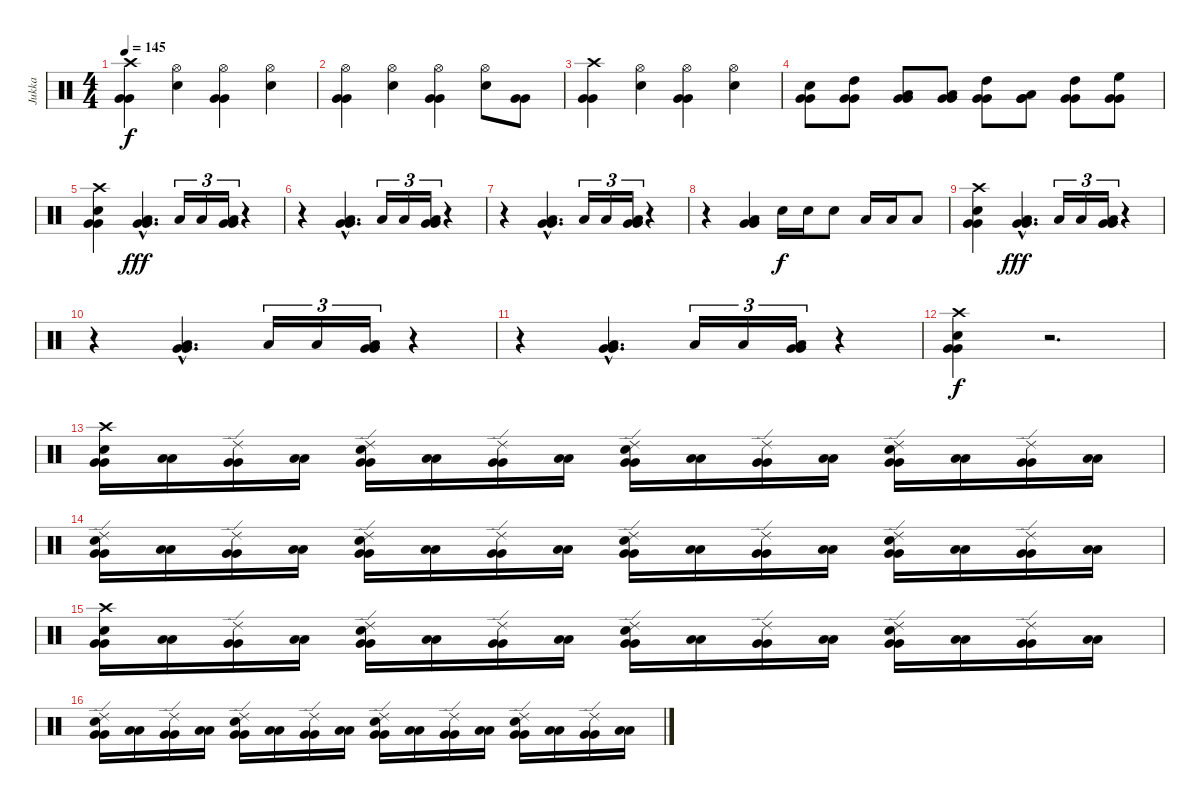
\track ("Jukka" "Jukka") {instrument percussion}
\staff {score}
\articulation defaults
\ts (4 4)
\tempo 145
\clef neutral
\ks c
("Crash high (hit)" "Very Low Tom (hit)" "Very Low Tom (hit)").4{dy f} ("Hi-Hat (open)" "Electric Snare (hit)").4 ("Hi-Hat (open)" "Very Low Tom (hit)" "Very Low Tom (hit)").4 ("Hi-Hat (open)" "Electric Snare (hit)").4 |
("Hi-Hat (open)" "Very Low Tom (hit)" "Very Low Tom (hit)").4 ("Hi-Hat (open)" "Electric Snare (hit)").4 ("Hi-Hat (open)" "Very Low Tom (hit)" "Very Low Tom (hit)").4 ("Hi-Hat (open)" "Electric Snare (hit)").8 ("Very Low Tom (hit)" "Very Low Tom (hit)").8 |
("Crash high (hit)" "Very Low Tom (hit)" "Very Low Tom (hit)").4 ("Hi-Hat (open)" "Electric Snare (hit)").4 ("Hi-Hat (open)" "Very Low Tom (hit)" "Very Low Tom (hit)").4 ("Hi-Hat (open)" "Electric Snare (hit)").4 |
("Electric Snare (hit)" "Very Low Tom (hit)" "Very Low Tom (hit)").8 ("High Tom (hit)" "Very Low Tom (hit)" "Very Low Tom (hit)").8 ("Low Tom (hit)" "Very Low Tom (hit)" "Very Low Tom (hit)").8 ("Low Tom (hit)" "Very Low Tom (hit)" "Very Low Tom (hit)").8 ("High Tom (hit)" "Very Low Tom (hit)" "Very Low Tom (hit)").8 ("Low Tom (hit)" "Very Low Tom (hit)" "Very Low Tom (hit)").8 ("High Tom (hit)" "Very Low Tom (hit)" "Very Low Tom (hit)").8 ("High Floor Tom (hit)" "Very Low Tom (hit)" "Very Low Tom (hit)").8 |
("Crash high (hit)" "Electric Snare (hit)" "Very Low Tom (hit)" "Very Low Tom (hit)").4 ("Low Tom (hit)"{hac} "Very Low Tom (hit)"{hac} "Very Low Tom (hit)"{hac}).4{d dy fff} "Low Tom (hit)".16{tu (3 2)} "Low Tom (hit)".16{tu (3 2)} ("Low Tom (hit)" "Very Low Tom (hit)" "Very Low Tom (hit)").16{tu (3 2)} r.4 |
r.4 ("Low Tom (hit)"{hac} "Very Low Tom (hit)"{hac} "Very Low Tom (hit)"{hac}).4{d} "Low Tom (hit)".16{tu (3 2)} "Low Tom (hit)".16{tu (3 2)} ("Low Tom (hit)" "Very Low Tom (hit)" "Very Low Tom (hit)").16{tu (3 2)} r.4 |
r.4 ("Low Tom (hit)"{hac} "Very Low Tom (hit)"{hac} "Very Low Tom (hit)"{hac}).4{d} "Low Tom (hit)".16{tu (3 2)} "Low Tom (hit)".16{tu (3 2)} ("Low Tom (hit)" "Very Low Tom (hit)" "Very Low Tom (hit)").16{tu (3 2)} r.4 |
r.4 ("Low Tom (hit)" "Very Low Tom (hit)" "Very Low Tom (hit)").4 "Electric Snare (hit)".16{dy f} "Electric Snare (hit)".16 "Electric Snare (hit)".8 "Low Tom (hit)".16 "Low Tom (hit)".16 "Low Tom (hit)".8 |
("Crash high (hit)" "Electric Snare (hit)" "Very Low Tom (hit)" "Very Low Tom (hit)").4 ("Low Tom (hit)"{hac} "Very Low Tom (hit)"{hac} "Very Low Tom (hit)"{hac}).4{d dy fff} "Low Tom (hit)".16{tu (3 2)} "Low Tom (hit)".16{tu (3 2)} ("Low Tom (hit)" "Very Low Tom (hit)" "Very Low Tom (hit)").16{tu (3 2)} r.4 |
r.4 ("Low Tom (hit)"{hac} "Very Low Tom (hit)"{hac} "Very Low Tom (hit)"{hac}).4{d} "Low Tom (hit)".16{tu (3 2)} "Low Tom (hit)".16{tu (3 2)} ("Low Tom (hit)" "Very Low Tom (hit)" "Very Low Tom (hit)").16{tu (3 2)} r.4 |
r.4 ("Low Tom (hit)"{hac} "Very Low Tom (hit)"{hac} "Very Low Tom (hit)"{hac}).4{d} "Low Tom (hit)".16{tu (3 2)} "Low Tom (hit)".16{tu (3 2)} ("Low Tom (hit)" "Very Low Tom (hit)" "Very Low Tom (hit)").16{tu (3 2)} r.4 |
("Crash high (hit)" "Electric Snare (hit)" "Very Low Tom (hit)" "Very Low Tom (hit)").4{dy f} r.2{d} |
("Crash high (hit)" "Electric Snare (hit)" "Very Low Tom (hit)" "Very Low Tom (hit)").16 ("Low Floor Tom (hit)" "Low Floor Tom (hit)").16 ("Ride (edge) 2" "Very Low Tom (hit)" "Very Low Tom (hit)").16 ("Low Floor Tom (hit)" "Low Floor Tom (hit)").16 ("Ride (edge) 2" "Electric Snare (hit)" "Very Low Tom (hit)" "Very Low Tom (hit)").16 ("Low Floor Tom (hit)" "Low Floor Tom (hit)").16 ("Ride (edge) 2" "Very Low Tom (hit)" "Very Low Tom (hit)").16 ("Low Floor Tom (hit)" "Low Floor Tom (hit)").16 ("Ride (edge) 2" "Electric Snare (hit)" "Very Low Tom (hit)" "Very Low Tom (hit)").16 ("Low Floor Tom (hit)" "Low Floor Tom (hit)").16 ("Ride (edge) 2" "Very Low Tom (hit)" "Very Low Tom (hit)").16 ("Low Floor Tom (hit)" "Low Floor Tom (hit)").16 ("Ride (edge) 2" "Electric Snare (hit)" "Very Low Tom (hit)" "Very Low Tom (hit)").16 ("Low Floor Tom (hit)" "Low Floor Tom (hit)").16 ("Ride (edge) 2" "Very Low Tom (hit)" "Very Low Tom (hit)").16 ("Low Floor Tom (hit)" "Low Floor Tom (hit)").16 |
("Ride (edge) 2" "Electric Snare (hit)" "Very Low Tom (hit)" "Very Low Tom (hit)").16 ("Low Floor Tom (hit)" "Low Floor Tom (hit)").16 ("Ride (edge) 2" "Very Low Tom (hit)" "Very Low Tom (hit)").16 ("Low Floor Tom (hit)" "Low Floor Tom (hit)").16 ("Ride (edge) 2" "Electric Snare (hit)" "Very Low Tom (hit)" "Very Low Tom (hit)").16 ("Low Floor Tom (hit)" "Low Floor Tom (hit)").16 ("Ride (edge) 2" "Very Low Tom (hit)" "Very Low Tom (hit)").16 ("Low Floor Tom (hit)" "Low Floor Tom (hit)").16 ("Ride (edge) 2" "Electric Snare (hit)" "Very Low Tom (hit)" "Very Low Tom (hit)").16 ("Low Floor Tom (hit)" "Low Floor Tom (hit)").16 ("Ride (edge) 2" "Very Low Tom (hit)" "Very Low Tom (hit)").16 ("Low Floor Tom (hit)" "Low Floor Tom (hit)").16 ("Ride (edge) 2" "Electric Snare (hit)" "Very Low Tom (hit)" "Very Low Tom (hit)").16 ("Low Floor Tom (hit)" "Low Floor Tom (hit)").16 ("Ride (edge) 2" "Very Low Tom (hit)" "Very Low Tom (hit)").16 ("Low Floor Tom (hit)" "Low Floor Tom (hit)").16 |
("Crash high (hit)" "Electric Snare (hit)" "Very Low Tom (hit)" "Very Low Tom (hit)").16 ("Low Floor Tom (hit)" "Low Floor Tom (hit)").16 ("Ride (edge) 2" "Very Low Tom (hit)" "Very Low Tom (hit)").16 ("Low Floor Tom (hit)" "Low Floor Tom (hit)").16 ("Ride (edge) 2" "Electric Snare (hit)" "Very Low Tom (hit)" "Very Low Tom (hit)").16 ("Low Floor Tom (hit)" "Low Floor Tom (hit)").16 ("Ride (edge) 2" "Very Low Tom (hit)" "Very Low Tom (hit)").16 ("Low Floor Tom (hit)" "Low Floor Tom (hit)").16 ("Ride (edge) 2" "Electric Snare (hit)" "Very Low Tom (hit)" "Very Low Tom (hit)").16 ("Low Floor Tom (hit)" "Low Floor Tom (hit)").16 ("Ride (edge) 2" "Very Low Tom (hit)" "Very Low Tom (hit)").16 ("Low Floor Tom (hit)" "Low Floor Tom (hit)").16 ("Ride (edge) 2" "Electric Snare (hit)" "Very Low Tom (hit)" "Very Low Tom (hit)").16 ("Low Floor Tom (hit)" "Low Floor Tom (hit)").16 ("Ride (edge) 2" "Very Low Tom (hit)" "Very Low Tom (hit)").16 ("Low Floor Tom (hit)" "Low Floor Tom (hit)").16 |
("Ride (edge) 2" "Electric Snare (hit)" "Very Low Tom (hit)" "Very Low Tom (hit)").16 ("Low Floor Tom (hit)" "Low Floor Tom (hit)").16 ("Ride (edge) 2" "Very Low Tom (hit)" "Very Low Tom (hit)").16 ("Low Floor Tom (hit)" "Low Floor Tom (hit)").16 ("Ride (edge) 2" "Electric Snare (hit)" "Very Low Tom (hit)" "Very Low Tom (hit)").16 ("Low Floor Tom (hit)" "Low Floor Tom (hit)").16 ("Ride (edge) 2" "Very Low Tom (hit)" "Very Low Tom (hit)").16 ("Low Floor Tom (hit)" "Low Floor Tom (hit)").16 ("Ride (edge) 2" "Electric Snare (hit)" "Very Low Tom (hit)" "Very Low Tom (hit)").16 ("Low Floor Tom (hit)" "Low Floor Tom (hit)").16 ("Ride (edge) 2" "Very Low Tom (hit)" "Very Low Tom (hit)").16 ("Low Floor Tom (hit)" "Low Floor Tom (hit)").16 ("Ride (edge) 2" "Electric Snare (hit)" "Very Low Tom (hit)" "Very Low Tom (hit)").16 ("Low Floor Tom (hit)" "Low Floor Tom (hit)").16 ("Ride (edge) 2" "Very Low Tom (hit)" "Very Low Tom (hit)").16 ("Low Floor Tom (hit)" "Low Floor Tom (hit)").16
